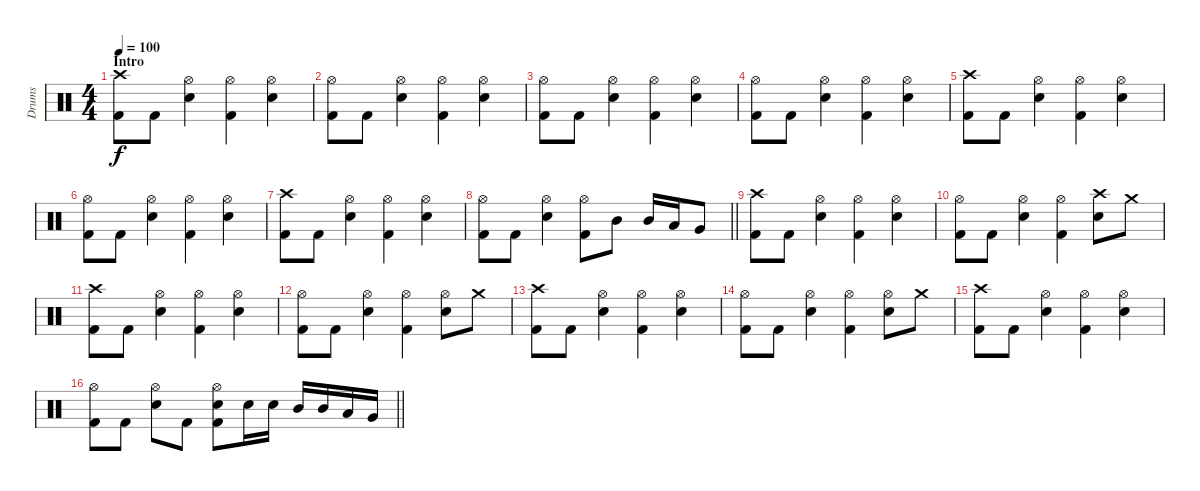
\track ("Drums" "Drums") {instrument percussion}
\staff {score}
\articulation defaults
\ts (4 4)
\section ("" "Intro")
\tempo 100
\clef neutral
\ks c
("Kick (hit) 2" "Crash high (hit)").8{dy f} "Kick (hit) 2".8 ("Snare (hit) 2" "Hi-Hat (open)").4 ("Kick (hit) 2" "Hi-Hat (open)").4 ("Snare (hit) 2" "Hi-Hat (open)").4 |
("Kick (hit) 2" "Hi-Hat (open)").8 "Kick (hit) 2".8 ("Snare (hit) 2" "Hi-Hat (open)").4 ("Kick (hit) 2" "Hi-Hat (open)").4 ("Snare (hit) 2" "Hi-Hat (open)").4 |
("Kick (hit) 2" "Hi-Hat (open)").8 "Kick (hit) 2".8 ("Snare (hit) 2" "Hi-Hat (open)").4 ("Kick (hit) 2" "Hi-Hat (open)").4 ("Snare (hit) 2" "Hi-Hat (open)").4 |
("Kick (hit) 2" "Hi-Hat (open)").8 "Kick (hit) 2".8 ("Snare (hit) 2" "Hi-Hat (open)").4 ("Kick (hit) 2" "Hi-Hat (open)").4 ("Snare (hit) 2" "Hi-Hat (open)").4 |
("Kick (hit) 2" "Crash high (hit)").8 "Kick (hit) 2".8 ("Snare (hit) 2" "Hi-Hat (open)").4 ("Kick (hit) 2" "Hi-Hat (open)").4 ("Snare (hit) 2" "Hi-Hat (open)").4 |
("Kick (hit) 2" "Hi-Hat (open)").8 "Kick (hit) 2".8 ("Snare (hit) 2" "Hi-Hat (open)").4 ("Kick (hit) 2" "Hi-Hat (open)").4 ("Snare (hit) 2" "Hi-Hat (open)").4 |
("Kick (hit) 2" "Crash high (hit)").8 "Kick (hit) 2".8 ("Snare (hit) 2" "Hi-Hat (open)").4 ("Kick (hit) 2" "Hi-Hat (open)").4 ("Snare (hit) 2" "Hi-Hat (open)").4 |
\barLineRight lightlight
("Kick (hit) 2" "Hi-Hat (open)").8 "Kick (hit) 2".8 ("Snare (hit) 2" "Hi-Hat (open)").4 ("Kick (hit) 2" "Hi-Hat (open)").8 "Mid Tom (hit)".8 "Mid Tom (hit)".16 "Low Tom (hit)".16 "Very Low Tom (hit)".8 |
("Kick (hit) 2" "Crash high (hit)").8 "Kick (hit) 2".8 ("Snare (hit) 2" "Hi-Hat (open)").4 ("Kick (hit) 2" "Hi-Hat (open)").4 ("Snare (hit) 2" "Hi-Hat (open)").4 |
("Kick (hit) 2" "Hi-Hat (open)").8 "Kick (hit) 2".8 ("Snare (hit) 2" "Hi-Hat (open)").4 ("Kick (hit) 2" "Hi-Hat (open)").4 ("Snare (hit) 2" "Crash high (hit)").8 "Crash medium (hit)".8 |
("Kick (hit) 2" "Crash high (hit)").8 "Kick (hit) 2".8 ("Snare (hit) 2" "Hi-Hat (open)").4 ("Kick (hit) 2" "Hi-Hat (open)").4 ("Snare (hit) 2" "Hi-Hat (open)").4 |
("Kick (hit) 2" "Hi-Hat (open)").8 "Kick (hit) 2".8 ("Snare (hit) 2" "Hi-Hat (open)").4 ("Kick (hit) 2" "Hi-Hat (open)").4 ("Snare (hit) 2" "Hi-Hat (open)").8 "Crash medium (hit)".8 |
("Kick (hit) 2" "Crash high (hit)").8 "Kick (hit) 2".8 ("Snare (hit) 2" "Hi-Hat (open)").4 ("Kick (hit) 2" "Hi-Hat (open)").4 ("Snare (hit) 2" "Hi-Hat (open)").4 |
("Kick (hit) 2" "Hi-Hat (open)").8 "Kick (hit) 2".8 ("Snare (hit) 2" "Hi-Hat (open)").4 ("Kick (hit) 2" "Hi-Hat (open)").4 ("Snare (hit) 2" "Hi-Hat (open)").8 "Crash medium (hit)".8 |
("Kick (hit) 2" "Crash high (hit)").8 "Kick (hit) 2".8 ("Snare (hit) 2" "Hi-Hat (open)").4 ("Kick (hit) 2" "Hi-Hat (open)").4 ("Snare (hit) 2" "Hi-Hat (open)").4 |
\barLineRight lightlight
("Kick (hit) 2" "Hi-Hat (open)").8 "Kick (hit) 2".8 ("Snare (hit) 2" "Hi-Hat (open)").8 "Kick (hit) 2".8 ("Kick (hit) 2" "Hi-Hat (open)" "Snare (hit) 2").8 "Snare (hit) 2".16 "Snare (hit) 2".16 "Mid Tom (hit)".16 "Mid Tom (hit)".16 "Low Tom (hit)".16 "Very Low Tom (hit)".16
